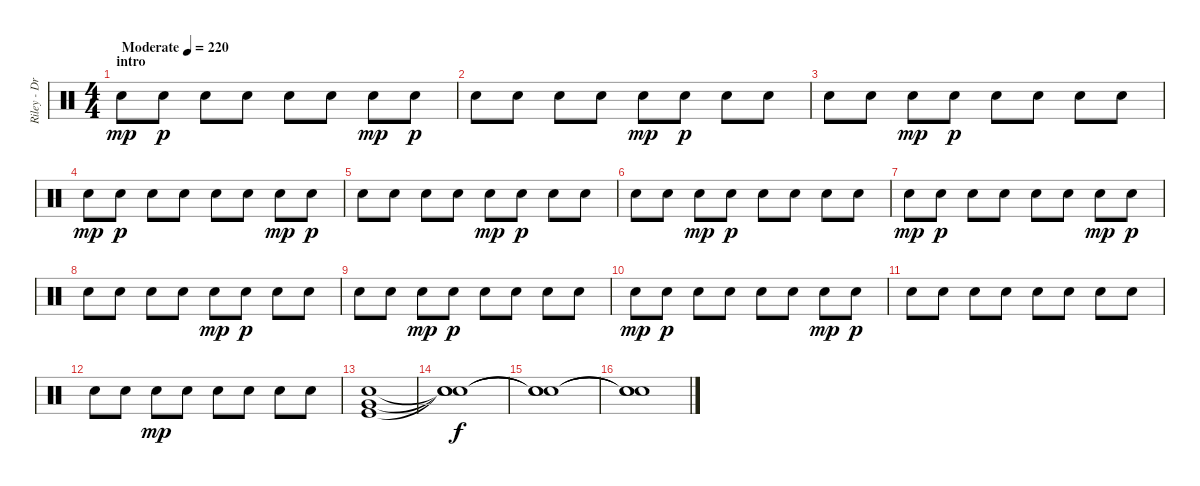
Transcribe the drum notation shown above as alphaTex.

\track ("Riley - Drums" "Riley - Dr") {instrument percussion}
\staff {score}
\articulation defaults
\ts (4 4)
\section ("" "intro")
\tempo (220 "Moderate")
\clef neutral
\ks c "Snare (hit) 2".8{dy mp} "Snare (hit) 2".8{dy p} "Snare (hit) 2".8 "Snare (hit) 2".8 "Snare (hit) 2".8 "Snare (hit) 2".8 "Snare (hit) 2".8{dy mp} "Snare (hit) 2".8{dy p}
|
"Snare (hit) 2".8 "Snare (hit) 2".8 "Snare (hit) 2".8 "Snare (hit) 2".8 "Snare (hit) 2".8{dy mp} "Snare (hit) 2".8{dy p} "Snare (hit) 2".8 "Snare (hit) 2".8 |
"Snare (hit) 2".8 "Snare (hit) 2".8 "Snare (hit) 2".8{dy mp} "Snare (hit) 2".8{dy p} "Snare (hit) 2".8 "Snare (hit) 2".8 "Snare (hit) 2".8 "Snare (hit) 2".8 |
"Snare (hit) 2".8{dy mp} "Snare (hit) 2".8{dy p} "Snare (hit) 2".8 "Snare (hit) 2".8 "Snare (hit) 2".8 "Snare (hit) 2".8 "Snare (hit) 2".8{dy mp} "Snare (hit) 2".8{dy p} |
"Snare (hit) 2".8 "Snare (hit) 2".8 "Snare (hit) 2".8 "Snare (hit) 2".8 "Snare (hit) 2".8{dy mp} "Snare (hit) 2".8{dy p} "Snare (hit) 2".8 "Snare (hit) 2".8 |
"Snare (hit) 2".8 "Snare (hit) 2".8 "Snare (hit) 2".8{dy mp} "Snare (hit) 2".8{dy p} "Snare (hit) 2".8 "Snare (hit) 2".8 "Snare (hit) 2".8 "Snare (hit) 2".8 |
"Snare (hit) 2".8{dy mp} "Snare (hit) 2".8{dy p} "Snare (hit) 2".8 "Snare (hit) 2".8 "Snare (hit) 2".8 "Snare (hit) 2".8 "Snare (hit) 2".8{dy mp} "Snare (hit) 2".8{dy p} |
"Snare (hit) 2".8 "Snare (hit) 2".8 "Snare (hit) 2".8 "Snare (hit) 2".8 "Snare (hit) 2".8{dy mp} "Snare (hit) 2".8{dy p} "Snare (hit) 2".8 "Snare (hit) 2".8 |
"Snare (hit) 2".8 "Snare (hit) 2".8 "Snare (hit) 2".8{dy mp} "Snare (hit) 2".8{dy p} "Snare (hit) 2".8 "Snare (hit) 2".8 "Snare (hit) 2".8 "Snare (hit) 2".8 |
"Snare (hit) 2".8{dy mp} "Snare (hit) 2".8{dy p} "Snare (hit) 2".8 "Snare (hit) 2".8 "Snare (hit) 2".8 "Snare (hit) 2".8 "Snare (hit) 2".8{dy mp} "Snare (hit) 2".8{dy p} |
"Snare (hit) 2".8 "Snare (hit) 2".8 "Snare (hit) 2".8 "Snare (hit) 2".8 "Snare (hit) 2".8 "Snare (hit) 2".8 "Snare (hit) 2".8 "Snare (hit) 2".8 |
"Snare (hit) 2".8 "Snare (hit) 2".8 "Snare (hit) 2".8{dy mp} "Snare (hit) 2".8 "Snare (hit) 2".8 "Snare (hit) 2".8 "Snare (hit) 2".8 "Snare (hit) 2".8 |
("Kick (hit)" "Snare (hit) 2" "Very Low Tom (hit)").1 |
("Snare (hit)"{t} "Snare (hit)"{t} "Snare (hit)"{t}).1{dy f} |
("Snare (hit)"{t} "Snare (hit)"{t} "Snare (hit)"{t}).1 |
("Snare (hit)"{t} "Snare (hit)"{t} "Snare (hit)"{t}).1
